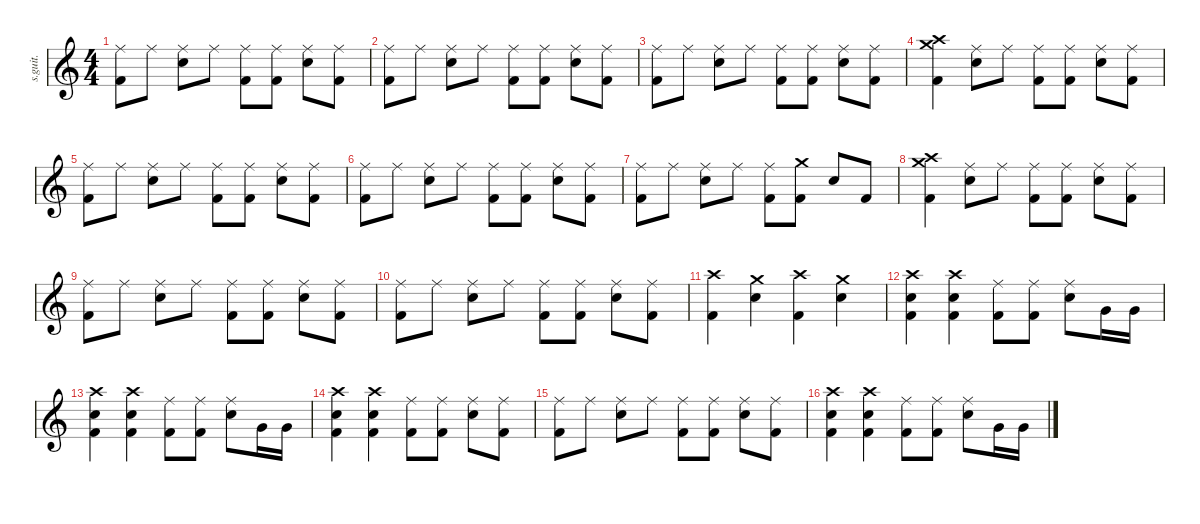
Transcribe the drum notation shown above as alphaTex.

\defaultSystemsLayout 4
\hideDynamics
\bracketExtendMode nobrackets
\track ("Bob Burns (Drums)" "s.guit.") {instrument percussion}
\staff {score}
\articulation defaults
\ts (4 4)
\tempo (150 hide)
\clef g2
\ks c
("Ride (middle)" "Kick (hit) 2").8{lyrics (0 "") lyrics (1 "") lyrics (2 "") lyrics (3 "") lyrics (4 "") dy f} "Ride (middle)".8{lyrics (0 "") lyrics (1 "") lyrics (2 "") lyrics (3 "") lyrics (4 "")} ("Ride (middle)" "Electric Snare (hit)").8{lyrics (0 "") lyrics (1 "") lyrics (2 "") lyrics (3 "") lyrics (4 "")} "Ride (middle)".8{lyrics (0 "") lyrics (1 "") lyrics (2 "") lyrics (3 "") lyrics (4 "")} ("Ride (middle)" "Kick (hit) 2").8{lyrics (0 "") lyrics (1 "") lyrics (2 "") lyrics (3 "") lyrics (4 "")} ("Ride (middle)" "Kick (hit) 2").8{lyrics (0 "") lyrics (1 "") lyrics (2 "") lyrics (3 "") lyrics (4 "")} ("Ride (middle)" "Electric Snare (hit)").8{lyrics (0 "") lyrics (1 "") lyrics (2 "") lyrics (3 "") lyrics (4 "")} ("Ride (middle)" "Kick (hit) 2").8{lyrics (0 "") lyrics (1 "") lyrics (2 "") lyrics (3 "") lyrics (4 "")} |
("Ride (middle)" "Kick (hit) 2").8{lyrics (0 "") lyrics (1 "") lyrics (2 "") lyrics (3 "") lyrics (4 "")} "Ride (middle)".8{lyrics (0 "") lyrics (1 "") lyrics (2 "") lyrics (3 "") lyrics (4 "")} ("Ride (middle)" "Electric Snare (hit)").8{lyrics (0 "") lyrics (1 "") lyrics (2 "") lyrics (3 "") lyrics (4 "")} "Ride (middle)".8{lyrics (0 "") lyrics (1 "") lyrics (2 "") lyrics (3 "") lyrics (4 "")} ("Ride (middle)" "Kick (hit) 2").8{lyrics (0 "") lyrics (1 "") lyrics (2 "") lyrics (3 "") lyrics (4 "")} ("Ride (middle)" "Kick (hit) 2").8{lyrics (0 "") lyrics (1 "") lyrics (2 "") lyrics (3 "") lyrics (4 "")} ("Ride (middle)" "Electric Snare (hit)").8{lyrics (0 "") lyrics (1 "") lyrics (2 "") lyrics (3 "") lyrics (4 "")} ("Ride (middle)" "Kick (hit) 2").8{lyrics (0 "") lyrics (1 "") lyrics (2 "") lyrics (3 "") lyrics (4 "")} |
("Ride (middle)" "Kick (hit) 2").8{lyrics (0 "") lyrics (1 "") lyrics (2 "") lyrics (3 "") lyrics (4 "")} "Ride (middle)".8{lyrics (0 "") lyrics (1 "") lyrics (2 "") lyrics (3 "") lyrics (4 "")} ("Ride (middle)" "Electric Snare (hit)").8{lyrics (0 "") lyrics (1 "") lyrics (2 "") lyrics (3 "") lyrics (4 "")} "Ride (middle)".8{lyrics (0 "") lyrics (1 "") lyrics (2 "") lyrics (3 "") lyrics (4 "")} ("Ride (middle)" "Kick (hit) 2").8{lyrics (0 "") lyrics (1 "") lyrics (2 "") lyrics (3 "") lyrics (4 "")} ("Ride (middle)" "Kick (hit) 2").8{lyrics (0 "") lyrics (1 "") lyrics (2 "") lyrics (3 "") lyrics (4 "")} ("Ride (middle)" "Electric Snare (hit)").8{lyrics (0 "") lyrics (1 "") lyrics (2 "") lyrics (3 "") lyrics (4 "")} ("Ride (middle)" "Kick (hit) 2").8{lyrics (0 "") lyrics (1 "") lyrics (2 "") lyrics (3 "") lyrics (4 "")} |
("Crash high (hit)" "Crash medium (hit)" "Kick (hit) 2").4{lyrics (0 "") lyrics (1 "") lyrics (2 "") lyrics (3 "") lyrics (4 "")} ("Ride (middle)" "Electric Snare (hit)").8{lyrics (0 "") lyrics (1 "") lyrics (2 "") lyrics (3 "") lyrics (4 "")} "Ride (middle)".8{lyrics (0 "") lyrics (1 "") lyrics (2 "") lyrics (3 "") lyrics (4 "")} ("Ride (middle)" "Kick (hit) 2").8{lyrics (0 "") lyrics (1 "") lyrics (2 "") lyrics (3 "") lyrics (4 "")} ("Ride (middle)" "Kick (hit) 2").8{lyrics (0 "") lyrics (1 "") lyrics (2 "") lyrics (3 "") lyrics (4 "")} ("Ride (middle)" "Electric Snare (hit)").8{lyrics (0 "") lyrics (1 "") lyrics (2 "") lyrics (3 "") lyrics (4 "")} ("Ride (middle)" "Kick (hit) 2").8{lyrics (0 "") lyrics (1 "") lyrics (2 "") lyrics (3 "") lyrics (4 "")} |
("Ride (middle)" "Kick (hit) 2").8{lyrics (0 "") lyrics (1 "") lyrics (2 "") lyrics (3 "") lyrics (4 "")} "Ride (middle)".8{lyrics (0 "") lyrics (1 "") lyrics (2 "") lyrics (3 "") lyrics (4 "")} ("Ride (middle)" "Electric Snare (hit)").8{lyrics (0 "") lyrics (1 "") lyrics (2 "") lyrics (3 "") lyrics (4 "")} "Ride (middle)".8{lyrics (0 "") lyrics (1 "") lyrics (2 "") lyrics (3 "") lyrics (4 "")} ("Ride (middle)" "Kick (hit) 2").8{lyrics (0 "") lyrics (1 "") lyrics (2 "") lyrics (3 "") lyrics (4 "")} ("Ride (middle)" "Kick (hit) 2").8{lyrics (0 "") lyrics (1 "") lyrics (2 "") lyrics (3 "") lyrics (4 "")} ("Ride (middle)" "Electric Snare (hit)").8{lyrics (0 "") lyrics (1 "") lyrics (2 "") lyrics (3 "") lyrics (4 "")} ("Ride (middle)" "Kick (hit) 2").8{lyrics (0 "") lyrics (1 "") lyrics (2 "") lyrics (3 "") lyrics (4 "")} |
("Ride (middle)" "Kick (hit) 2").8{lyrics (0 "") lyrics (1 "") lyrics (2 "") lyrics (3 "") lyrics (4 "")} "Ride (middle)".8{lyrics (0 "") lyrics (1 "") lyrics (2 "") lyrics (3 "") lyrics (4 "")} ("Ride (middle)" "Electric Snare (hit)").8{lyrics (0 "") lyrics (1 "") lyrics (2 "") lyrics (3 "") lyrics (4 "")} "Ride (middle)".8{lyrics (0 "") lyrics (1 "") lyrics (2 "") lyrics (3 "") lyrics (4 "")} ("Ride (middle)" "Kick (hit) 2").8{lyrics (0 "") lyrics (1 "") lyrics (2 "") lyrics (3 "") lyrics (4 "")} ("Ride (middle)" "Kick (hit) 2").8{lyrics (0 "") lyrics (1 "") lyrics (2 "") lyrics (3 "") lyrics (4 "")} ("Ride (middle)" "Electric Snare (hit)").8{lyrics (0 "") lyrics (1 "") lyrics (2 "") lyrics (3 "") lyrics (4 "")} ("Ride (middle)" "Kick (hit) 2").8{lyrics (0 "") lyrics (1 "") lyrics (2 "") lyrics (3 "") lyrics (4 "")} |
("Ride (middle)" "Kick (hit) 2").8{lyrics (0 "") lyrics (1 "") lyrics (2 "") lyrics (3 "") lyrics (4 "")} "Ride (middle)".8{lyrics (0 "") lyrics (1 "") lyrics (2 "") lyrics (3 "") lyrics (4 "")} ("Ride (middle)" "Electric Snare (hit)").8{lyrics (0 "") lyrics (1 "") lyrics (2 "") lyrics (3 "") lyrics (4 "")} "Ride (middle)".8{lyrics (0 "") lyrics (1 "") lyrics (2 "") lyrics (3 "") lyrics (4 "")} ("Ride (middle)" "Kick (hit) 2").8{lyrics (0 "") lyrics (1 "") lyrics (2 "") lyrics (3 "") lyrics (4 "")} ("Crash medium (hit)" "Kick (hit) 2").8{lyrics (0 "") lyrics (1 "") lyrics (2 "") lyrics (3 "") lyrics (4 "")} "Electric Snare (hit)".8{lyrics (0 "") lyrics (1 "") lyrics (2 "") lyrics (3 "") lyrics (4 "")} "Kick (hit) 2".8{lyrics (0 "") lyrics (1 "") lyrics (2 "") lyrics (3 "") lyrics (4 "")} |
("Crash high (hit)" "Crash medium (hit)" "Kick (hit) 2").4{lyrics (0 "") lyrics (1 "") lyrics (2 "") lyrics (3 "") lyrics (4 "")} ("Ride (middle)" "Electric Snare (hit)").8{lyrics (0 "") lyrics (1 "") lyrics (2 "") lyrics (3 "") lyrics (4 "")} "Ride (middle)".8{lyrics (0 "") lyrics (1 "") lyrics (2 "") lyrics (3 "") lyrics (4 "")} ("Ride (middle)" "Kick (hit) 2").8{lyrics (0 "") lyrics (1 "") lyrics (2 "") lyrics (3 "") lyrics (4 "")} ("Ride (middle)" "Kick (hit) 2").8{lyrics (0 "") lyrics (1 "") lyrics (2 "") lyrics (3 "") lyrics (4 "")} ("Ride (middle)" "Electric Snare (hit)").8{lyrics (0 "") lyrics (1 "") lyrics (2 "") lyrics (3 "") lyrics (4 "")} ("Ride (middle)" "Kick (hit) 2").8{lyrics (0 "") lyrics (1 "") lyrics (2 "") lyrics (3 "") lyrics (4 "")} |
("Ride (middle)" "Kick (hit) 2").8{lyrics (0 "") lyrics (1 "") lyrics (2 "") lyrics (3 "") lyrics (4 "")} "Ride (middle)".8{lyrics (0 "") lyrics (1 "") lyrics (2 "") lyrics (3 "") lyrics (4 "")} ("Ride (middle)" "Electric Snare (hit)").8{lyrics (0 "") lyrics (1 "") lyrics (2 "") lyrics (3 "") lyrics (4 "")} "Ride (middle)".8{lyrics (0 "") lyrics (1 "") lyrics (2 "") lyrics (3 "") lyrics (4 "")} ("Ride (middle)" "Kick (hit) 2").8{lyrics (0 "") lyrics (1 "") lyrics (2 "") lyrics (3 "") lyrics (4 "")} ("Ride (middle)" "Kick (hit) 2").8{lyrics (0 "") lyrics (1 "") lyrics (2 "") lyrics (3 "") lyrics (4 "")} ("Ride (middle)" "Electric Snare (hit)").8{lyrics (0 "") lyrics (1 "") lyrics (2 "") lyrics (3 "") lyrics (4 "")} ("Ride (middle)" "Kick (hit) 2").8{lyrics (0 "") lyrics (1 "") lyrics (2 "") lyrics (3 "") lyrics (4 "")} |
("Ride (middle)" "Kick (hit) 2").8{lyrics (0 "") lyrics (1 "") lyrics (2 "") lyrics (3 "") lyrics (4 "")} "Ride (middle)".8{lyrics (0 "") lyrics (1 "") lyrics (2 "") lyrics (3 "") lyrics (4 "")} ("Ride (middle)" "Electric Snare (hit)").8{lyrics (0 "") lyrics (1 "") lyrics (2 "") lyrics (3 "") lyrics (4 "")} "Ride (middle)".8{lyrics (0 "") lyrics (1 "") lyrics (2 "") lyrics (3 "") lyrics (4 "")} ("Ride (middle)" "Kick (hit) 2").8{lyrics (0 "") lyrics (1 "") lyrics (2 "") lyrics (3 "") lyrics (4 "")} ("Ride (middle)" "Kick (hit) 2").8{lyrics (0 "") lyrics (1 "") lyrics (2 "") lyrics (3 "") lyrics (4 "")} ("Ride (middle)" "Electric Snare (hit)").8{lyrics (0 "") lyrics (1 "") lyrics (2 "") lyrics (3 "") lyrics (4 "")} ("Ride (middle)" "Kick (hit) 2").8{lyrics (0 "") lyrics (1 "") lyrics (2 "") lyrics (3 "") lyrics (4 "")} |
("Crash high (hit)" "Kick (hit) 2").4{lyrics (0 "") lyrics (1 "") lyrics (2 "") lyrics (3 "") lyrics (4 "")} ("Crash medium (hit)" "Electric Snare (hit)").4{lyrics (0 "") lyrics (1 "") lyrics (2 "") lyrics (3 "") lyrics (4 "")} ("Crash high (hit)" "Kick (hit) 2").4{lyrics (0 "") lyrics (1 "") lyrics (2 "") lyrics (3 "") lyrics (4 "")} ("Crash medium (hit)" "Electric Snare (hit)").4{lyrics (0 "") lyrics (1 "") lyrics (2 "") lyrics (3 "") lyrics (4 "")} |
("Crash high (hit)" "Electric Snare (hit)" "Kick (hit) 2").4{lyrics (0 "") lyrics (1 "") lyrics (2 "") lyrics (3 "") lyrics (4 "")} ("Crash high (hit)" "Electric Snare (hit)" "Kick (hit) 2").4{lyrics (0 "") lyrics (1 "") lyrics (2 "") lyrics (3 "") lyrics (4 "")} ("Ride (middle)" "Kick (hit) 2").8{lyrics (0 "") lyrics (1 "") lyrics (2 "") lyrics (3 "") lyrics (4 "")} ("Ride (middle)" "Kick (hit) 2").8{lyrics (0 "") lyrics (1 "") lyrics (2 "") lyrics (3 "") lyrics (4 "")} ("Ride (middle)" "Electric Snare (hit)").8{lyrics (0 "") lyrics (1 "") lyrics (2 "") lyrics (3 "") lyrics (4 "")} "Very Low Tom (hit)".16{lyrics (0 "") lyrics (1 "") lyrics (2 "") lyrics (3 "") lyrics (4 "")} "Very Low Tom (hit)".16{lyrics (0 "") lyrics (1 "") lyrics (2 "") lyrics (3 "") lyrics (4 "")} |
("Crash high (hit)" "Electric Snare (hit)" "Kick (hit) 2").4{lyrics (0 "") lyrics (1 "") lyrics (2 "") lyrics (3 "") lyrics (4 "")} ("Crash high (hit)" "Electric Snare (hit)" "Kick (hit) 2").4{lyrics (0 "") lyrics (1 "") lyrics (2 "") lyrics (3 "") lyrics (4 "")} ("Ride (middle)" "Kick (hit) 2").8{lyrics (0 "") lyrics (1 "") lyrics (2 "") lyrics (3 "") lyrics (4 "")} ("Ride (middle)" "Kick (hit) 2").8{lyrics (0 "") lyrics (1 "") lyrics (2 "") lyrics (3 "") lyrics (4 "")} ("Ride (middle)" "Electric Snare (hit)").8{lyrics (0 "") lyrics (1 "") lyrics (2 "") lyrics (3 "") lyrics (4 "")} "Very Low Tom (hit)".16{lyrics (0 "") lyrics (1 "") lyrics (2 "") lyrics (3 "") lyrics (4 "")} "Very Low Tom (hit)".16{lyrics (0 "") lyrics (1 "") lyrics (2 "") lyrics (3 "") lyrics (4 "")} |
("Crash high (hit)" "Electric Snare (hit)" "Kick (hit) 2").4{lyrics (0 "") lyrics (1 "") lyrics (2 "") lyrics (3 "") lyrics (4 "")} ("Crash high (hit)" "Electric Snare (hit)" "Kick (hit) 2").4{lyrics (0 "") lyrics (1 "") lyrics (2 "") lyrics (3 "") lyrics (4 "")} ("Ride (middle)" "Kick (hit) 2").8{lyrics (0 "") lyrics (1 "") lyrics (2 "") lyrics (3 "") lyrics (4 "")} ("Ride (middle)" "Kick (hit) 2").8{lyrics (0 "") lyrics (1 "") lyrics (2 "") lyrics (3 "") lyrics (4 "")} ("Ride (middle)" "Electric Snare (hit)").8{lyrics (0 "") lyrics (1 "") lyrics (2 "") lyrics (3 "") lyrics (4 "")} ("Ride (middle)" "Kick (hit) 2").8{lyrics (0 "") lyrics (1 "") lyrics (2 "") lyrics (3 "") lyrics (4 "")} |
("Ride (middle)" "Kick (hit) 2").8{lyrics (0 "") lyrics (1 "") lyrics (2 "") lyrics (3 "") lyrics (4 "")} "Ride (middle)".8{lyrics (0 "") lyrics (1 "") lyrics (2 "") lyrics (3 "") lyrics (4 "")} ("Ride (middle)" "Electric Snare (hit)").8{lyrics (0 "") lyrics (1 "") lyrics (2 "") lyrics (3 "") lyrics (4 "")} "Ride (middle)".8{lyrics (0 "") lyrics (1 "") lyrics (2 "") lyrics (3 "") lyrics (4 "")} ("Ride (middle)" "Kick (hit) 2").8{lyrics (0 "") lyrics (1 "") lyrics (2 "") lyrics (3 "") lyrics (4 "")} ("Ride (middle)" "Kick (hit) 2").8{lyrics (0 "") lyrics (1 "") lyrics (2 "") lyrics (3 "") lyrics (4 "")} ("Ride (middle)" "Electric Snare (hit)").8{lyrics (0 "") lyrics (1 "") lyrics (2 "") lyrics (3 "") lyrics (4 "")} ("Ride (middle)" "Kick (hit) 2").8{lyrics (0 "") lyrics (1 "") lyrics (2 "") lyrics (3 "") lyrics (4 "")} |
("Crash high (hit)" "Electric Snare (hit)" "Kick (hit) 2").4{lyrics (0 "") lyrics (1 "") lyrics (2 "") lyrics (3 "") lyrics (4 "")} ("Crash high (hit)" "Electric Snare (hit)" "Kick (hit) 2").4{lyrics (0 "") lyrics (1 "") lyrics (2 "") lyrics (3 "") lyrics (4 "")} ("Ride (middle)" "Kick (hit) 2").8{lyrics (0 "") lyrics (1 "") lyrics (2 "") lyrics (3 "") lyrics (4 "")} ("Ride (middle)" "Kick (hit) 2").8{lyrics (0 "") lyrics (1 "") lyrics (2 "") lyrics (3 "") lyrics (4 "")} ("Ride (middle)" "Electric Snare (hit)").8{lyrics (0 "") lyrics (1 "") lyrics (2 "") lyrics (3 "") lyrics (4 "")} "Very Low Tom (hit)".16{lyrics (0 "") lyrics (1 "") lyrics (2 "") lyrics (3 "") lyrics (4 "")} "Very Low Tom (hit)".16{lyrics (0 "") lyrics (1 "") lyrics (2 "") lyrics (3 "") lyrics (4 "")}
